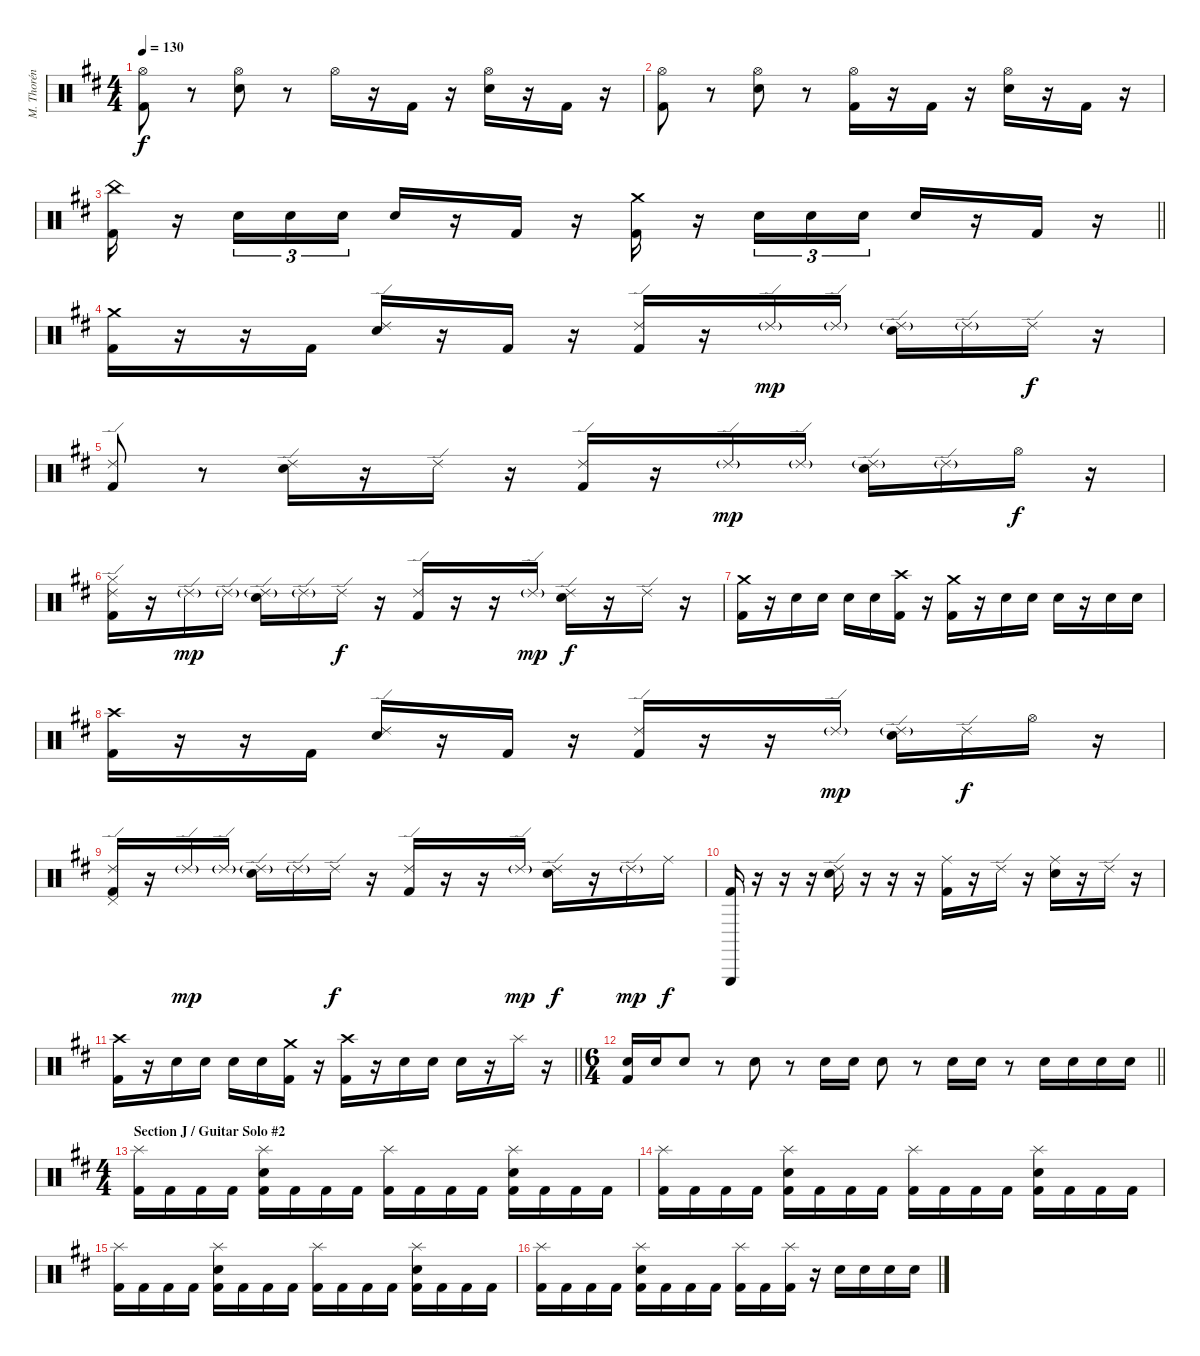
\track ("M. Thorén (Drums)" "M. Thorén ") {instrument percussion}
\staff {score}
\articulation defaults
\ts (4 4)
\tempo 130
\clef neutral
\ks bminor
("Hi-Hat (open)" "Kick (hit) 2").8{dy f} r.8 ("Hi-Hat (open)" "Electric Snare (hit)").8 r.8 "Hi-Hat (open)".16 r.16 "Kick (hit) 2".16 r.16 ("Hi-Hat (open)" "Electric Snare (hit)").16 r.16 "Kick (hit) 2".16 r.16 |
("Hi-Hat (open)" "Kick (hit) 2").8 r.8 ("Hi-Hat (open)" "Electric Snare (hit)").8 r.8 ("Hi-Hat (open)" "Kick (hit) 2").16 r.16 "Kick (hit) 2".16 r.16 ("Hi-Hat (open)" "Electric Snare (hit)").16 r.16 "Kick (hit) 2".16 r.16 |
\barLineRight lightlight
("China (hit)" "Kick (hit) 2").16 r.16 "Electric Snare (hit)".16{tu (3 2)} "Electric Snare (hit)".16{tu (3 2)} "Electric Snare (hit)".16{tu (3 2)} "Electric Snare (hit)".16 r.16 "Kick (hit) 2".16 r.16 ("Crash medium (hit)" "Kick (hit) 2").16 r.16 "Electric Snare (hit)".16{tu (3 2)} "Electric Snare (hit)".16{tu (3 2)} "Electric Snare (hit)".16{tu (3 2)} "Electric Snare (hit)".16 r.16 "Kick (hit) 2".16 r.16 |
("Crash medium (hit)" "Kick (hit) 2").16 r.16 r.16 "Kick (hit) 2".16 ("Ride (edge) 2" "Electric Snare (hit)").16 r.16 "Kick (hit) 2".16 r.16 ("Ride (edge) 2" "Kick (hit) 2").16 r.16 "Ride (edge) 2"{g}.16{dy mp} "Ride (edge) 2"{g}.16 ("Ride (edge) 2"{g} "Electric Snare (hit)").16 "Ride (edge) 2"{g}.16 "Ride (edge) 2".16{dy f} r.16 |
("Ride (edge) 2" "Kick (hit) 2").8 r.8 ("Ride (edge) 2" "Electric Snare (hit)").16 r.16 "Ride (edge) 2".16 r.16 ("Ride (edge) 2" "Kick (hit) 2").16 r.16 "Ride (edge) 2"{g}.16{dy mp} "Ride (edge) 2"{g}.16 ("Ride (edge) 2"{g} "Electric Snare (hit)").16 "Ride (edge) 2"{g}.16 "Hi-Hat (open)".16{dy f} r.16 |
("Ride (edge) 2" "Hi-Hat (closed)" "Kick (hit) 2").16 r.16 "Ride (edge) 2"{g}.16{dy mp} "Ride (edge) 2"{g}.16 ("Ride (edge) 2"{g} "Electric Snare (hit)").16 "Ride (edge) 2"{g}.16 "Ride (edge) 2".16{dy f} r.16 ("Ride (edge) 2" "Kick (hit) 2").16 r.16 r.16 "Ride (edge) 2"{g}.16{dy mp} ("Ride (edge) 2" "Electric Snare (hit)").16{dy f} r.16 "Ride (edge) 2".16 r.16 |
("Crash medium (hit)" "Kick (hit) 2").16 r.16 "Electric Snare (hit)".16 "Electric Snare (hit)".16 "Electric Snare (hit)".16 "Electric Snare (hit)".16 ("Crash high (hit)" "Kick (hit) 2").16 r.16 ("Crash medium (hit)" "Kick (hit) 2").16 r.16 "Electric Snare (hit)".16 "Electric Snare (hit)".16 "Electric Snare (hit)".16 r.16 "Electric Snare (hit)".16 "Electric Snare (hit)".16 |
("Crash high (hit)" "Kick (hit) 2").16 r.16 r.16 "Kick (hit) 2".16 ("Ride (edge) 2" "Electric Snare (hit)").16 r.16 "Kick (hit) 2".16 r.16 ("Ride (edge) 2" "Kick (hit) 2").16 r.16 r.16 "Ride (edge) 2"{g}.16{dy mp} ("Ride (edge) 2"{g} "Electric Snare (hit)").16 "Ride (edge) 2".16{dy f} "Hi-Hat (open)".16 r.16 |
("Ride (edge) 2" "Pedal Hi-Hat (hit)" "Kick (hit) 2").16 r.16 "Ride (edge) 2"{g}.16{dy mp} "Ride (edge) 2"{g}.16 ("Ride (edge) 2"{g} "Electric Snare (hit)").16 "Ride (edge) 2"{g}.16 "Ride (edge) 2".16{dy f} r.16 ("Ride (edge) 2" "Kick (hit) 2").16 r.16 r.16 "Ride (edge) 2"{g}.16{dy mp} ("Ride (edge) 2" "Electric Snare (hit)").16{dy f} r.16 "Ride (edge) 2"{g}.16{dy mp} "Ride (middle)".16{dy f} |
("Triangle (hit)" "Kick (hit) 2").16 r.16 r.16 r.16 ("Ride (edge) 2" "Electric Snare (hit)").16 r.16 r.16 r.16 ("Ride (middle)" "Kick (hit) 2").16 r.16 "Ride (edge) 2".16 r.16 ("Ride (middle)" "Electric Snare (hit)").16 r.16 "Ride (edge) 2".16 r.16 |
\barLineRight lightlight
("Crash high (hit)" "Kick (hit) 2").16 r.16 "Electric Snare (hit)".16 "Electric Snare (hit)".16 "Electric Snare (hit)".16 "Electric Snare (hit)".16 ("Crash medium (hit)" "Kick (hit) 2").16 r.16 ("Crash high (hit)" "Kick (hit) 2").16 r.16 "Electric Snare (hit)".16 "Electric Snare (hit)".16 "Electric Snare (hit)".16 r.16 "Splash (hit)".16 r.16 |
\ts (6 4)
\barLineRight lightlight
("Electric Snare (hit)" "Kick (hit) 2").16 "Electric Snare (hit)".16 "Electric Snare (hit)".8 r.8 "Electric Snare (hit)".8 r.8 "Electric Snare (hit)".16 "Electric Snare (hit)".16 "Electric Snare (hit)".8 r.8 "Electric Snare (hit)".16 "Electric Snare (hit)".16 r.8 "Electric Snare (hit)".16 "Electric Snare (hit)".16 "Electric Snare (hit)".16 "Electric Snare (hit)".16 |
\ts (4 4)
\section ("" "Section J / Guitar Solo #2")
("Splash (hit)" "Kick (hit) 2").16 "Kick (hit) 2".16 "Kick (hit) 2".16 "Kick (hit) 2".16 ("Splash (hit)" "Electric Snare (hit)" "Kick (hit) 2").16 "Kick (hit) 2".16 "Kick (hit) 2".16 "Kick (hit) 2".16 ("Splash (hit)" "Kick (hit) 2").16 "Kick (hit) 2".16 "Kick (hit) 2".16 "Kick (hit) 2".16 ("Splash (hit)" "Electric Snare (hit)" "Kick (hit) 2").16 "Kick (hit) 2".16 "Kick (hit) 2".16 "Kick (hit) 2".16 |
("Splash (hit)" "Kick (hit) 2").16 "Kick (hit) 2".16 "Kick (hit) 2".16 "Kick (hit) 2".16 ("Splash (hit)" "Electric Snare (hit)" "Kick (hit) 2").16 "Kick (hit) 2".16 "Kick (hit) 2".16 "Kick (hit) 2".16 ("Splash (hit)" "Kick (hit) 2").16 "Kick (hit) 2".16 "Kick (hit) 2".16 "Kick (hit) 2".16 ("Splash (hit)" "Electric Snare (hit)" "Kick (hit) 2").16 "Kick (hit) 2".16 "Kick (hit) 2".16 "Kick (hit) 2".16 |
("Splash (hit)" "Kick (hit) 2").16 "Kick (hit) 2".16 "Kick (hit) 2".16 "Kick (hit) 2".16 ("Splash (hit)" "Electric Snare (hit)" "Kick (hit) 2").16 "Kick (hit) 2".16 "Kick (hit) 2".16 "Kick (hit) 2".16 ("Splash (hit)" "Kick (hit) 2").16 "Kick (hit) 2".16 "Kick (hit) 2".16 "Kick (hit) 2".16 ("Splash (hit)" "Electric Snare (hit)" "Kick (hit) 2").16 "Kick (hit) 2".16 "Kick (hit) 2".16 "Kick (hit) 2".16 |
("Splash (hit)" "Kick (hit) 2").16 "Kick (hit) 2".16 "Kick (hit) 2".16 "Kick (hit) 2".16 ("Splash (hit)" "Electric Snare (hit)" "Kick (hit) 2").16 "Kick (hit) 2".16 "Kick (hit) 2".16 "Kick (hit) 2".16 ("Splash (hit)" "Kick (hit) 2").16 "Kick (hit) 2".16 ("Splash (hit)" "Kick (hit) 2").16 r.16 "Electric Snare (hit)".16 "Electric Snare (hit)".16 "Electric Snare (hit)".16 "Electric Snare (hit)".16
